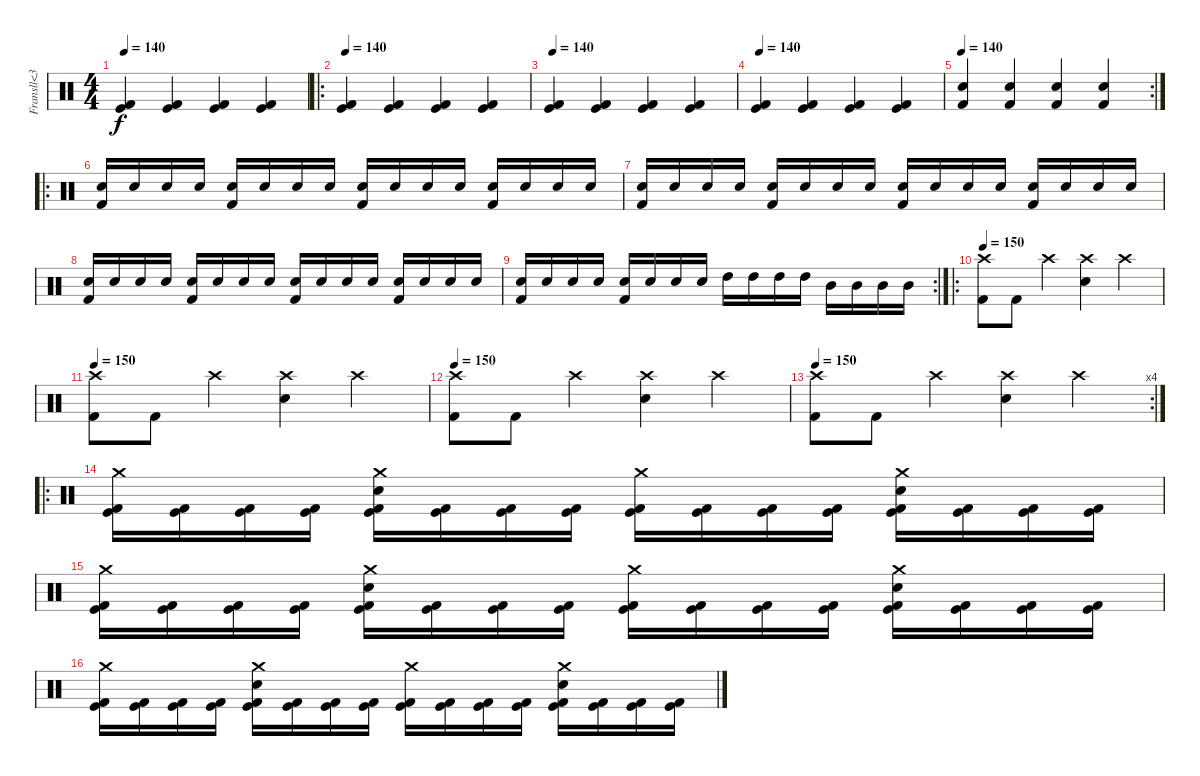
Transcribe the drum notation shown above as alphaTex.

\track ("Fransll<3" "Fransll<3") {instrument percussion}
\staff {score}
\articulation defaults
\ts (4 4)
\tempo 140
\clef neutral
\ks c
("Kick (hit) 2" "Kick (hit)").4{dy f} ("Kick (hit) 2" "Kick (hit)").4 ("Kick (hit) 2" "Kick (hit)").4 ("Kick (hit) 2" "Kick (hit)").4 |
\ro
\tempo 140
("Kick (hit) 2" "Kick (hit)").4 ("Kick (hit) 2" "Kick (hit)").4 ("Kick (hit) 2" "Kick (hit)").4 ("Kick (hit) 2" "Kick (hit)").4 |
\tempo 140
("Kick (hit) 2" "Kick (hit)").4 ("Kick (hit) 2" "Kick (hit)").4 ("Kick (hit) 2" "Kick (hit)").4 ("Kick (hit) 2" "Kick (hit)").4 |
\tempo 140
("Kick (hit) 2" "Kick (hit)").4 ("Kick (hit) 2" "Kick (hit)").4 ("Kick (hit) 2" "Kick (hit)").4 ("Kick (hit) 2" "Kick (hit)").4 |
\rc 2
\tempo 140
("Kick (hit) 2" "Electric Snare (hit)").4 ("Kick (hit) 2" "Electric Snare (hit)").4 ("Kick (hit) 2" "Electric Snare (hit)").4 ("Kick (hit) 2" "Electric Snare (hit)").4 |
\ro
("Kick (hit) 2" "Electric Snare (hit)").16 "Electric Snare (hit)".16 "Electric Snare (hit)".16 "Electric Snare (hit)".16 ("Kick (hit) 2" "Electric Snare (hit)").16 "Electric Snare (hit)".16 "Electric Snare (hit)".16 "Electric Snare (hit)".16 ("Kick (hit) 2" "Electric Snare (hit)").16 "Electric Snare (hit)".16 "Electric Snare (hit)".16 "Electric Snare (hit)".16 ("Kick (hit) 2" "Electric Snare (hit)").16 "Electric Snare (hit)".16 "Electric Snare (hit)".16 "Electric Snare (hit)".16 |
("Kick (hit) 2" "Electric Snare (hit)").16 "Electric Snare (hit)".16 "Electric Snare (hit)".16 "Electric Snare (hit)".16 ("Kick (hit) 2" "Electric Snare (hit)").16 "Electric Snare (hit)".16 "Electric Snare (hit)".16 "Electric Snare (hit)".16 ("Kick (hit) 2" "Electric Snare (hit)").16 "Electric Snare (hit)".16 "Electric Snare (hit)".16 "Electric Snare (hit)".16 ("Kick (hit) 2" "Electric Snare (hit)").16 "Electric Snare (hit)".16 "Electric Snare (hit)".16 "Electric Snare (hit)".16 |
("Kick (hit) 2" "Electric Snare (hit)").16 "Electric Snare (hit)".16 "Electric Snare (hit)".16 "Electric Snare (hit)".16 ("Kick (hit) 2" "Electric Snare (hit)").16 "Electric Snare (hit)".16 "Electric Snare (hit)".16 "Electric Snare (hit)".16 ("Kick (hit) 2" "Electric Snare (hit)").16 "Electric Snare (hit)".16 "Electric Snare (hit)".16 "Electric Snare (hit)".16 ("Kick (hit) 2" "Electric Snare (hit)").16 "Electric Snare (hit)".16 "Electric Snare (hit)".16 "Electric Snare (hit)".16 |
\rc 2
("Kick (hit) 2" "Electric Snare (hit)").16 "Electric Snare (hit)".16 "Electric Snare (hit)".16 "Electric Snare (hit)".16 ("Kick (hit) 2" "Electric Snare (hit)").16 "Electric Snare (hit)".16 "Electric Snare (hit)".16 "Electric Snare (hit)".16 "High Tom (hit)".16 "High Tom (hit)".16 "High Tom (hit)".16 "High Tom (hit)".16 "Mid Tom (hit)".16 "Mid Tom (hit)".16 "Mid Tom (hit)".16 "Mid Tom (hit)".16 |
\ro
\tempo 150
("Crash high (hit)" "Kick (hit) 2").8 "Kick (hit) 2".8 "Crash high (hit)".4 ("Crash high (hit)" "Electric Snare (hit)").4 "Crash high (hit)".4 |
\tempo 150
("Crash high (hit)" "Kick (hit) 2").8 "Kick (hit) 2".8 "Crash high (hit)".4 ("Crash high (hit)" "Electric Snare (hit)").4 "Crash high (hit)".4 |
\tempo 150
("Crash high (hit)" "Kick (hit) 2").8 "Kick (hit) 2".8 "Crash high (hit)".4 ("Crash high (hit)" "Electric Snare (hit)").4 "Crash high (hit)".4 |
\rc 4
\tempo 150
("Crash high (hit)" "Kick (hit) 2").8 "Kick (hit) 2".8 "Crash high (hit)".4 ("Crash high (hit)" "Electric Snare (hit)").4 "Crash high (hit)".4 |
\ro
("Kick (hit) 2" "Crash medium (hit)" "Kick (hit)").16 ("Kick (hit) 2" "Kick (hit)").16 ("Kick (hit) 2" "Kick (hit)").16 ("Kick (hit) 2" "Kick (hit)").16 ("Kick (hit) 2" "Crash medium (hit)" "Kick (hit)" "Electric Snare (hit)").16 ("Kick (hit) 2" "Kick (hit)").16 ("Kick (hit) 2" "Kick (hit)").16 ("Kick (hit) 2" "Kick (hit)").16 ("Kick (hit) 2" "Crash medium (hit)" "Kick (hit)").16 ("Kick (hit) 2" "Kick (hit)").16 ("Kick (hit) 2" "Kick (hit)").16 ("Kick (hit) 2" "Kick (hit)").16 ("Kick (hit) 2" "Crash medium (hit)" "Kick (hit)" "Electric Snare (hit)").16 ("Kick (hit) 2" "Kick (hit)").16 ("Kick (hit) 2" "Kick (hit)").16 ("Kick (hit) 2" "Kick (hit)").16 |
("Kick (hit) 2" "Crash medium (hit)" "Kick (hit)").16 ("Kick (hit) 2" "Kick (hit)").16 ("Kick (hit) 2" "Kick (hit)").16 ("Kick (hit) 2" "Kick (hit)").16 ("Kick (hit) 2" "Crash medium (hit)" "Kick (hit)" "Electric Snare (hit)").16 ("Kick (hit) 2" "Kick (hit)").16 ("Kick (hit) 2" "Kick (hit)").16 ("Kick (hit) 2" "Kick (hit)").16 ("Kick (hit) 2" "Crash medium (hit)" "Kick (hit)").16 ("Kick (hit) 2" "Kick (hit)").16 ("Kick (hit) 2" "Kick (hit)").16 ("Kick (hit) 2" "Kick (hit)").16 ("Kick (hit) 2" "Crash medium (hit)" "Kick (hit)" "Electric Snare (hit)").16 ("Kick (hit) 2" "Kick (hit)").16 ("Kick (hit) 2" "Kick (hit)").16 ("Kick (hit) 2" "Kick (hit)").16 |
("Kick (hit) 2" "Crash medium (hit)" "Kick (hit)").16 ("Kick (hit) 2" "Kick (hit)").16 ("Kick (hit) 2" "Kick (hit)").16 ("Kick (hit) 2" "Kick (hit)").16 ("Kick (hit) 2" "Crash medium (hit)" "Kick (hit)" "Electric Snare (hit)").16 ("Kick (hit) 2" "Kick (hit)").16 ("Kick (hit) 2" "Kick (hit)").16 ("Kick (hit) 2" "Kick (hit)").16 ("Kick (hit) 2" "Crash medium (hit)" "Kick (hit)").16 ("Kick (hit) 2" "Kick (hit)").16 ("Kick (hit) 2" "Kick (hit)").16 ("Kick (hit) 2" "Kick (hit)").16 ("Kick (hit) 2" "Crash medium (hit)" "Kick (hit)" "Electric Snare (hit)").16 ("Kick (hit) 2" "Kick (hit)").16 ("Kick (hit) 2" "Kick (hit)").16 ("Kick (hit) 2" "Kick (hit)").16
